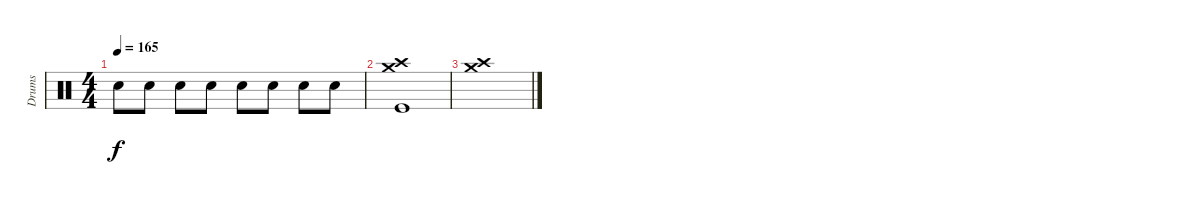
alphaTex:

\track ("Drums" "Drums") {instrument percussion}
\staff {score}
\articulation defaults
\ts (4 4)
\tempo 165
\clef neutral
\ks c "Snare (hit) 2".8{dy f} "Snare (hit) 2".8 "Snare (hit) 2".8 "Snare (hit) 2".8 "Snare (hit) 2".8 "Snare (hit) 2".8 "Snare (hit) 2".8 "Snare (hit) 2".8
|
("Crash high (hit)" "Crash medium (hit)" "Kick (hit)").1 |
("Crash high (hit)" "Crash medium (hit)").1
